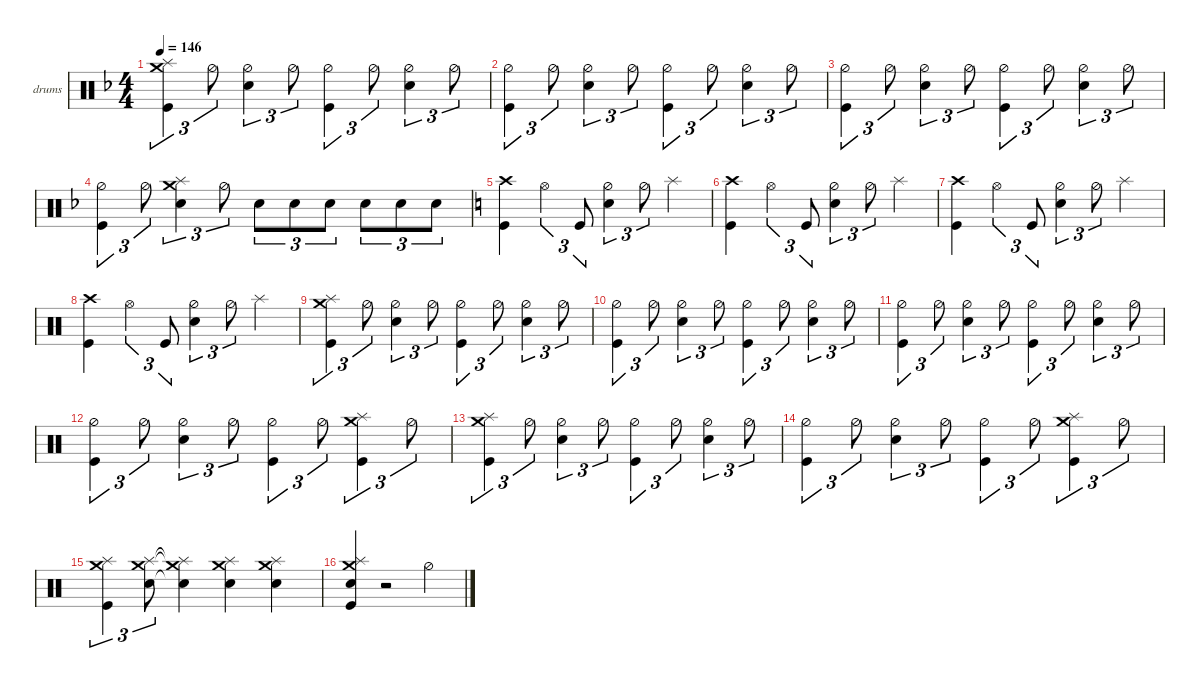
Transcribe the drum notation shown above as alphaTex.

\defaultSystemsLayout 4
\hideDynamics
\bracketExtendMode nobrackets
\firstSystemTrackNameOrientation horizontal
\otherSystemsTrackNameOrientation horizontal
\track ("drums" "drums") {instrument percussion}
\staff {score}
\articulation defaults
\ts (4 4)
\tempo 146
\clef neutral
\scale
1.06392
\ks f
("Kick (hit)" "Splash (hit)" "Crash medium (hit)").4{tu (3 2) dy mf} "Hi-Hat (half)".8{tu (3 2)} ("Hi-Hat (half)" "Snare (hit) 2").4{tu (3 2)} "Hi-Hat (half)".8{tu (3 2)} ("Kick (hit)" "Hi-Hat (half)").4{tu (3 2)} "Hi-Hat (half)".8{tu (3 2)} ("Hi-Hat (half)" "Snare (hit) 2").4{tu (3 2)} "Hi-Hat (half)".8{tu (3 2)} |
\scale
0.978695 ("Kick (hit)" "Hi-Hat (half)").4{tu (3 2)} "Hi-Hat (half)".8{tu (3 2)} ("Hi-Hat (half)" "Snare (hit) 2").4{tu (3 2)} "Hi-Hat (half)".8{tu (3 2)} ("Kick (hit)" "Hi-Hat (half)").4{tu (3 2)} "Hi-Hat (half)".8{tu (3 2)} ("Hi-Hat (half)" "Snare (hit) 2").4{tu (3 2)} "Hi-Hat (half)".8{tu (3 2)} |
\scale
0.978695 ("Kick (hit)" "Hi-Hat (half)").4{tu (3 2)} "Hi-Hat (half)".8{tu (3 2)} ("Hi-Hat (half)" "Snare (hit) 2").4{tu (3 2)} "Hi-Hat (half)".8{tu (3 2)} ("Kick (hit)" "Hi-Hat (half)").4{tu (3 2)} "Hi-Hat (half)".8{tu (3 2)} ("Hi-Hat (half)" "Snare (hit) 2").4{tu (3 2)} "Hi-Hat (half)".8{tu (3 2)} |
\scale
0.978695 ("Kick (hit)" "Hi-Hat (half)").4{tu (3 2)} "Hi-Hat (half)".8{tu (3 2)} ("Splash (hit)" "Crash medium (hit)" "Snare (hit) 2").4{tu (3 2)} "Hi-Hat (half)".8{tu (3 2)} "Snare (hit) 2".8{tu (3 2)} "Snare (hit) 2".8{tu (3 2)} "Snare (hit) 2".8{tu (3 2)} "Snare (hit) 2".8{tu (3 2)} "Snare (hit) 2".8{tu (3 2)} "Snare (hit) 2".8{tu (3 2)} |
\scale
1.06392
\ks c
("Kick (hit)" "Crash high (hit)").4 "Hi-Hat (open)".4{tu (3 2)} "Kick (hit)".8{tu (3 2)} ("Hi-Hat (half)" "Snare (hit) 2").4{tu (3 2)} "Hi-Hat (half)".8{tu (3 2)} "Splash (hit)".4{dy p} |
\scale
0.978695 ("Kick (hit)" "Crash high (hit)").4{dy mf} "Hi-Hat (open)".4{tu (3 2)} "Kick (hit)".8{tu (3 2)} ("Hi-Hat (half)" "Snare (hit) 2").4{tu (3 2)} "Hi-Hat (half)".8{tu (3 2)} "Splash (hit)".4{dy p} |
\scale
0.978695 ("Kick (hit)" "Crash high (hit)").4{dy mf} "Hi-Hat (open)".4{tu (3 2)} "Kick (hit)".8{tu (3 2)} ("Hi-Hat (half)" "Snare (hit) 2").4{tu (3 2)} "Hi-Hat (half)".8{tu (3 2)} "Splash (hit)".4{dy p} |
\scale
0.978695 ("Kick (hit)" "Crash high (hit)").4{dy mf} "Hi-Hat (open)".4{tu (3 2)} "Kick (hit)".8{tu (3 2)} ("Hi-Hat (half)" "Snare (hit) 2").4{tu (3 2)} "Hi-Hat (half)".8{tu (3 2)} "Splash (hit)".4{dy p} |
\scale
1.06392 ("Kick (hit)" "Splash (hit)" "Crash medium (hit)").4{tu (3 2) dy mf} "Hi-Hat (half)".8{tu (3 2)} ("Hi-Hat (half)" "Snare (hit) 2").4{tu (3 2)} "Hi-Hat (half)".8{tu (3 2)} ("Kick (hit)" "Hi-Hat (half)").4{tu (3 2)} "Hi-Hat (half)".8{tu (3 2)} ("Hi-Hat (half)" "Snare (hit) 2").4{tu (3 2)} "Hi-Hat (half)".8{tu (3 2)} |
\scale
0.978695 ("Kick (hit)" "Hi-Hat (half)").4{tu (3 2)} "Hi-Hat (half)".8{tu (3 2)} ("Hi-Hat (half)" "Snare (hit) 2").4{tu (3 2)} "Hi-Hat (half)".8{tu (3 2)} ("Kick (hit)" "Hi-Hat (half)").4{tu (3 2)} "Hi-Hat (half)".8{tu (3 2)} ("Hi-Hat (half)" "Snare (hit) 2").4{tu (3 2)} "Hi-Hat (half)".8{tu (3 2)} |
\scale
0.978695 ("Kick (hit)" "Hi-Hat (half)").4{tu (3 2)} "Hi-Hat (half)".8{tu (3 2)} ("Hi-Hat (half)" "Snare (hit) 2").4{tu (3 2)} "Hi-Hat (half)".8{tu (3 2)} ("Kick (hit)" "Hi-Hat (half)").4{tu (3 2)} "Hi-Hat (half)".8{tu (3 2)} ("Hi-Hat (half)" "Snare (hit) 2").4{tu (3 2)} "Hi-Hat (half)".8{tu (3 2)} |
\scale
0.978695 ("Kick (hit)" "Hi-Hat (half)").4{tu (3 2)} "Hi-Hat (half)".8{tu (3 2)} ("Hi-Hat (half)" "Snare (hit) 2").4{tu (3 2)} "Hi-Hat (half)".8{tu (3 2)} ("Kick (hit)" "Hi-Hat (half)").4{tu (3 2)} "Hi-Hat (half)".8{tu (3 2)} ("Kick (hit)" "Splash (hit)" "Crash medium (hit)").4{tu (3 2)} "Hi-Hat (half)".8{tu (3 2)} |
\scale
1.05949 ("Kick (hit)" "Splash (hit)" "Crash medium (hit)").4{tu (3 2)} "Hi-Hat (half)".8{tu (3 2)} ("Hi-Hat (half)" "Snare (hit) 2").4{tu (3 2)} "Hi-Hat (half)".8{tu (3 2)} ("Kick (hit)" "Hi-Hat (half)").4{tu (3 2)} "Hi-Hat (half)".8{tu (3 2)} ("Hi-Hat (half)" "Snare (hit) 2").4{tu (3 2)} "Hi-Hat (half)".8{tu (3 2)} |
\scale
0.974274 ("Kick (hit)" "Hi-Hat (half)").4{tu (3 2)} "Hi-Hat (half)".8{tu (3 2)} ("Hi-Hat (half)" "Snare (hit) 2").4{tu (3 2)} "Hi-Hat (half)".8{tu (3 2)} ("Kick (hit)" "Hi-Hat (half)").4{tu (3 2)} "Hi-Hat (half)".8{tu (3 2)} ("Kick (hit)" "Splash (hit)" "Crash medium (hit)").4{tu (3 2)} "Hi-Hat (half)".8{tu (3 2)} |
\scale
0.974274 ("Kick (hit)" "Splash (hit)" "Crash medium (hit)").4{tu (3 2)} ("Splash (hit)" "Crash medium (hit)" "Snare (hit) 2").8{tu (3 2) dy ff} ("Splash (hit)"{t} "Crash medium (hit)"{t} "Snare (hit) 2"{t}).4 ("Splash (hit)" "Crash medium (hit)" "Snare (hit) 2").4 ("Splash (hit)" "Crash medium (hit)" "Snare (hit) 2").4 |
\scale
0.991958 ("Splash (hit)" "Crash medium (hit)" "Snare (hit) 2" "Kick (hit)").4 r.2 "Hi-Hat (half)".4{dy mf}
